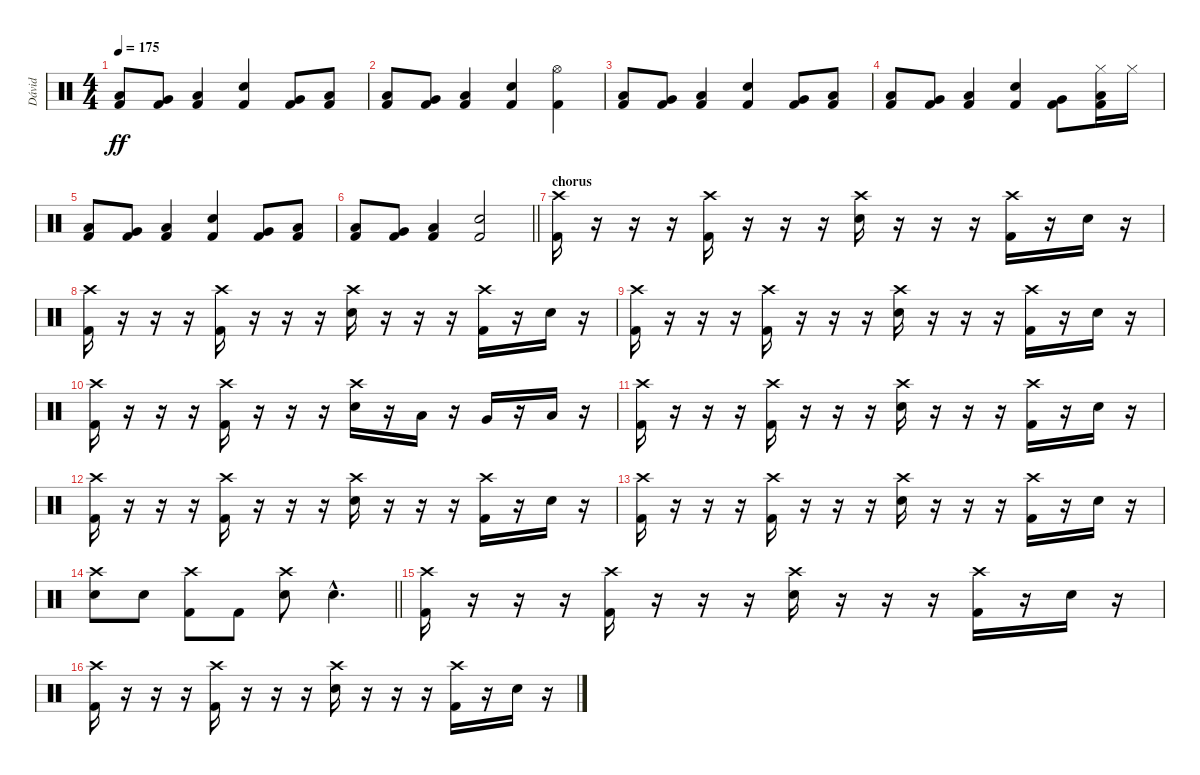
\track ("Dávid" "Dávid") {instrument percussion}
\staff {score}
\articulation defaults
\ts (4 4)
\tempo 175
\clef neutral
\ks c
("Low Tom (hit)" "Kick (hit) 2").8{dy ff} ("Very Low Tom (hit)" "Kick (hit) 2").8 ("Low Floor Tom (hit)" "Kick (hit) 2").4 ("Electric Snare (hit)" "Kick (hit) 2").4 ("Very Low Tom (hit)" "Kick (hit) 2").8 ("Low Floor Tom (hit)" "Kick (hit) 2").8 |
("Low Tom (hit)" "Kick (hit) 2").8 ("Very Low Tom (hit)" "Kick (hit) 2").8 ("Low Floor Tom (hit)" "Kick (hit) 2").4 ("Electric Snare (hit)" "Kick (hit) 2").4 ("Hi-Hat (open)" "Kick (hit) 2").4 |
("Low Tom (hit)" "Kick (hit) 2").8 ("Very Low Tom (hit)" "Kick (hit) 2").8 ("Low Floor Tom (hit)" "Kick (hit) 2").4 ("Electric Snare (hit)" "Kick (hit) 2").4 ("Very Low Tom (hit)" "Kick (hit) 2").8 ("Low Floor Tom (hit)" "Kick (hit) 2").8 |
("Low Tom (hit)" "Kick (hit) 2").8 ("Very Low Tom (hit)" "Kick (hit) 2").8 ("Low Floor Tom (hit)" "Kick (hit) 2").4 ("Electric Snare (hit)" "Kick (hit) 2").4 ("Very Low Tom (hit)" "Kick (hit) 2").8 ("Low Floor Tom (hit)" "Hi-Hat (closed)" "Kick (hit) 2").16 "Hi-Hat (closed)".16 |
("Low Tom (hit)" "Kick (hit) 2").8 ("Very Low Tom (hit)" "Kick (hit) 2").8 ("Low Floor Tom (hit)" "Kick (hit) 2").4 ("Electric Snare (hit)" "Kick (hit) 2").4 ("Very Low Tom (hit)" "Kick (hit) 2").8 ("Low Floor Tom (hit)" "Kick (hit) 2").8 |
\barLineRight lightlight
("Low Tom (hit)" "Kick (hit) 2").8 ("Very Low Tom (hit)" "Kick (hit) 2").8 ("Low Floor Tom (hit)" "Kick (hit) 2").4 ("Electric Snare (hit)" "Kick (hit) 2").2 |
\section ("" "chorus")
("Crash high (hit)" "Kick (hit) 2").16 r.16 r.16 r.16 ("Crash high (hit)" "Kick (hit) 2").16 r.16 r.16 r.16 ("Crash high (hit)" "Electric Snare (hit)").16 r.16 r.16 r.16 ("Crash high (hit)" "Kick (hit) 2").16 r.16 "Electric Snare (hit)".16 r.16 |
("Crash high (hit)" "Kick (hit) 2").16 r.16 r.16 r.16 ("Crash high (hit)" "Kick (hit) 2").16 r.16 r.16 r.16 ("Crash high (hit)" "Electric Snare (hit)").16 r.16 r.16 r.16 ("Crash high (hit)" "Kick (hit) 2").16 r.16 "Electric Snare (hit)".16 r.16 |
("Crash high (hit)" "Kick (hit) 2").16 r.16 r.16 r.16 ("Crash high (hit)" "Kick (hit) 2").16 r.16 r.16 r.16 ("Crash high (hit)" "Electric Snare (hit)").16 r.16 r.16 r.16 ("Crash high (hit)" "Kick (hit) 2").16 r.16 "Electric Snare (hit)".16 r.16 |
("Crash high (hit)" "Kick (hit) 2").16 r.16 r.16 r.16 ("Crash high (hit)" "Kick (hit) 2").16 r.16 r.16 r.16 ("Crash high (hit)" "Electric Snare (hit)").16 r.16 "Low Tom (hit)".16 r.16 "Very Low Tom (hit)".16 r.16 "Low Floor Tom (hit)".16 r.16 |
("Crash high (hit)" "Kick (hit) 2").16 r.16 r.16 r.16 ("Crash high (hit)" "Kick (hit) 2").16 r.16 r.16 r.16 ("Crash high (hit)" "Electric Snare (hit)").16 r.16 r.16 r.16 ("Crash high (hit)" "Kick (hit) 2").16 r.16 "Electric Snare (hit)".16 r.16 |
("Crash high (hit)" "Kick (hit) 2").16 r.16 r.16 r.16 ("Crash high (hit)" "Kick (hit) 2").16 r.16 r.16 r.16 ("Crash high (hit)" "Electric Snare (hit)").16 r.16 r.16 r.16 ("Crash high (hit)" "Kick (hit) 2").16 r.16 "Electric Snare (hit)".16 r.16 |
("Crash high (hit)" "Kick (hit) 2").16 r.16 r.16 r.16 ("Crash high (hit)" "Kick (hit) 2").16 r.16 r.16 r.16 ("Crash high (hit)" "Electric Snare (hit)").16 r.16 r.16 r.16 ("Crash high (hit)" "Kick (hit) 2").16 r.16 "Electric Snare (hit)".16 r.16 |
\barLineRight lightlight
("Crash high (hit)" "Electric Snare (hit)").8 "Electric Snare (hit)".8 ("Crash high (hit)" "Kick (hit) 2").8 "Kick (hit) 2".8 ("Crash high (hit)" "Electric Snare (hit)").8 "Electric Snare (hit)"{hac}.4{d} |
("Crash high (hit)" "Kick (hit) 2").16 r.16 r.16 r.16 ("Crash high (hit)" "Kick (hit) 2").16 r.16 r.16 r.16 ("Crash high (hit)" "Electric Snare (hit)").16 r.16 r.16 r.16 ("Crash high (hit)" "Kick (hit) 2").16 r.16 "Electric Snare (hit)".16 r.16 |
("Crash high (hit)" "Kick (hit) 2").16 r.16 r.16 r.16 ("Crash high (hit)" "Kick (hit) 2").16 r.16 r.16 r.16 ("Crash high (hit)" "Electric Snare (hit)").16 r.16 r.16 r.16 ("Crash high (hit)" "Kick (hit) 2").16 r.16 "Electric Snare (hit)".16 r.16
